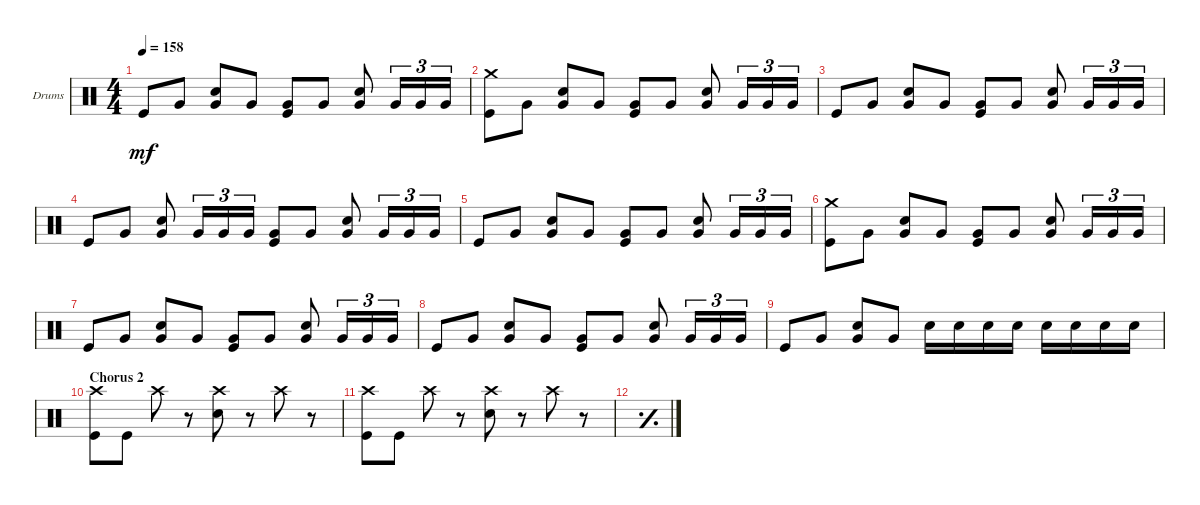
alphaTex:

\defaultSystemsLayout 4
\bracketExtendMode groupsimilarinstruments
\firstSystemTrackNameOrientation horizontal
\otherSystemsTrackNameOrientation horizontal
\track ("Drums" "Drums") {instrument percussion}
\staff {score}
\articulation defaults
\ts (4 4)
\tempo 158
\clef neutral
\ks c "Kick (hit)".8{dy mf} "Very Low Tom (hit)".8
("Very Low Tom (hit)" "Snare (hit) 2").8 "Very Low Tom (hit)".8 ("Very Low Tom (hit)" "Kick (hit)").8 "Very Low Tom (hit)".8 ("Very Low Tom (hit)" "Snare (hit) 2").8 "Very Low Tom (hit)".16{tu (3 2)} "Very Low Tom (hit)".16{tu (3 2)} "Very Low Tom (hit)".16{tu (3 2)} |
("Crash medium (hit)" "Kick (hit)").8 "Very Low Tom (hit)".8 ("Very Low Tom (hit)" "Snare (hit) 2").8 "Very Low Tom (hit)".8 ("Very Low Tom (hit)" "Kick (hit)").8 "Very Low Tom (hit)".8 ("Very Low Tom (hit)" "Snare (hit) 2").8 "Very Low Tom (hit)".16{tu (3 2)} "Very Low Tom (hit)".16{tu (3 2)} "Very Low Tom (hit)".16{tu (3 2)} |
"Kick (hit)".8 "Very Low Tom (hit)".8 ("Very Low Tom (hit)" "Snare (hit) 2").8 "Very Low Tom (hit)".8 ("Very Low Tom (hit)" "Kick (hit)").8 "Very Low Tom (hit)".8 ("Very Low Tom (hit)" "Snare (hit) 2").8 "Very Low Tom (hit)".16{tu (3 2)} "Very Low Tom (hit)".16{tu (3 2)} "Very Low Tom (hit)".16{tu (3 2)} |
"Kick (hit)".8 "Very Low Tom (hit)".8 ("Very Low Tom (hit)" "Snare (hit) 2").8 "Very Low Tom (hit)".16{tu (3 2)} "Very Low Tom (hit)".16{tu (3 2)} "Very Low Tom (hit)".16{tu (3 2)} ("Very Low Tom (hit)" "Kick (hit)").8 "Very Low Tom (hit)".8 ("Very Low Tom (hit)" "Snare (hit) 2").8 "Very Low Tom (hit)".16{tu (3 2)} "Very Low Tom (hit)".16{tu (3 2)} "Very Low Tom (hit)".16{tu (3 2)} |
"Kick (hit)".8 "Very Low Tom (hit)".8 ("Very Low Tom (hit)" "Snare (hit) 2").8 "Very Low Tom (hit)".8 ("Very Low Tom (hit)" "Kick (hit)").8 "Very Low Tom (hit)".8 ("Very Low Tom (hit)" "Snare (hit) 2").8 "Very Low Tom (hit)".16{tu (3 2)} "Very Low Tom (hit)".16{tu (3 2)} "Very Low Tom (hit)".16{tu (3 2)} |
("Crash medium (hit)" "Kick (hit)").8 "Very Low Tom (hit)".8 ("Very Low Tom (hit)" "Snare (hit) 2").8 "Very Low Tom (hit)".8 ("Very Low Tom (hit)" "Kick (hit)").8 "Very Low Tom (hit)".8 ("Very Low Tom (hit)" "Snare (hit) 2").8 "Very Low Tom (hit)".16{tu (3 2)} "Very Low Tom (hit)".16{tu (3 2)} "Very Low Tom (hit)".16{tu (3 2)} |
"Kick (hit)".8 "Very Low Tom (hit)".8 ("Very Low Tom (hit)" "Snare (hit) 2").8 "Very Low Tom (hit)".8 ("Very Low Tom (hit)" "Kick (hit)").8 "Very Low Tom (hit)".8 ("Very Low Tom (hit)" "Snare (hit) 2").8 "Very Low Tom (hit)".16{tu (3 2)} "Very Low Tom (hit)".16{tu (3 2)} "Very Low Tom (hit)".16{tu (3 2)} |
"Kick (hit)".8 "Very Low Tom (hit)".8 ("Very Low Tom (hit)" "Snare (hit) 2").8 "Very Low Tom (hit)".8 ("Very Low Tom (hit)" "Kick (hit)").8 "Very Low Tom (hit)".8 ("Very Low Tom (hit)" "Snare (hit) 2").8 "Very Low Tom (hit)".16{tu (3 2)} "Very Low Tom (hit)".16{tu (3 2)} "Very Low Tom (hit)".16{tu (3 2)} |
"Kick (hit)".8 "Very Low Tom (hit)".8 ("Very Low Tom (hit)" "Snare (hit) 2").8 "Very Low Tom (hit)".8 "Snare (hit) 2".16 "Snare (hit) 2".16 "Snare (hit) 2".16 "Snare (hit) 2".16 "Snare (hit) 2".16 "Snare (hit) 2".16 "Snare (hit) 2".16 "Snare (hit) 2".16 |
\section ("" "Chorus 2")
("Kick (hit)" "Crash high (hit)").8 "Kick (hit)".8 "Crash high (hit)".8 r.8 ("Snare (hit) 2" "Crash high (hit)").8 r.8 "Crash high (hit)".8 r.8 |
("Kick (hit)" "Crash high (hit)").8 "Kick (hit)".8 "Crash high (hit)".8 r.8 ("Snare (hit) 2" "Crash high (hit)").8 r.8 "Crash high (hit)".8 r.8 |
\simile simple
